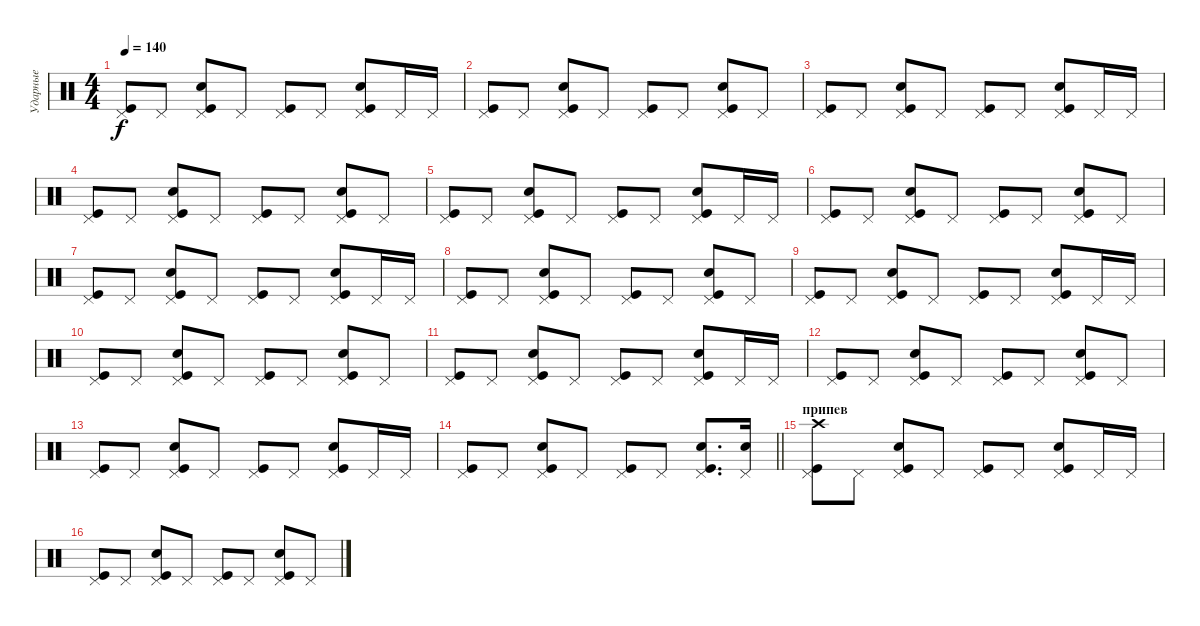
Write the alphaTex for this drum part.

\track ("Ударные" "Ударные") {instrument percussion}
\staff {score}
\articulation defaults
\ts (4 4)
\tempo 140
\clef neutral
\ks c
("Pedal Hi-Hat (hit)" "Kick (hit)").8{dy f} "Pedal Hi-Hat (hit)".8 ("Pedal Hi-Hat (hit)" "Kick (hit)" "Snare (hit) 2").8 "Pedal Hi-Hat (hit)".8 ("Pedal Hi-Hat (hit)" "Kick (hit)").8 "Pedal Hi-Hat (hit)".8 ("Pedal Hi-Hat (hit)" "Kick (hit)" "Snare (hit) 2").8 "Pedal Hi-Hat (hit)".16 "Pedal Hi-Hat (hit)".16 |
("Pedal Hi-Hat (hit)" "Kick (hit)").8 "Pedal Hi-Hat (hit)".8 ("Pedal Hi-Hat (hit)" "Kick (hit)" "Snare (hit) 2").8 "Pedal Hi-Hat (hit)".8 ("Pedal Hi-Hat (hit)" "Kick (hit)").8 "Pedal Hi-Hat (hit)".8 ("Pedal Hi-Hat (hit)" "Kick (hit)" "Snare (hit) 2").8 "Pedal Hi-Hat (hit)".8 |
("Pedal Hi-Hat (hit)" "Kick (hit)").8 "Pedal Hi-Hat (hit)".8 ("Pedal Hi-Hat (hit)" "Kick (hit)" "Snare (hit) 2").8 "Pedal Hi-Hat (hit)".8 ("Pedal Hi-Hat (hit)" "Kick (hit)").8 "Pedal Hi-Hat (hit)".8 ("Pedal Hi-Hat (hit)" "Kick (hit)" "Snare (hit) 2").8 "Pedal Hi-Hat (hit)".16 "Pedal Hi-Hat (hit)".16 |
("Pedal Hi-Hat (hit)" "Kick (hit)").8 "Pedal Hi-Hat (hit)".8 ("Pedal Hi-Hat (hit)" "Kick (hit)" "Snare (hit) 2").8 "Pedal Hi-Hat (hit)".8 ("Pedal Hi-Hat (hit)" "Kick (hit)").8 "Pedal Hi-Hat (hit)".8 ("Pedal Hi-Hat (hit)" "Kick (hit)" "Snare (hit) 2").8 "Pedal Hi-Hat (hit)".8 |
("Pedal Hi-Hat (hit)" "Kick (hit)").8 "Pedal Hi-Hat (hit)".8 ("Pedal Hi-Hat (hit)" "Kick (hit)" "Snare (hit) 2").8 "Pedal Hi-Hat (hit)".8 ("Pedal Hi-Hat (hit)" "Kick (hit)").8 "Pedal Hi-Hat (hit)".8 ("Pedal Hi-Hat (hit)" "Kick (hit)" "Snare (hit) 2").8 "Pedal Hi-Hat (hit)".16 "Pedal Hi-Hat (hit)".16 |
("Pedal Hi-Hat (hit)" "Kick (hit)").8 "Pedal Hi-Hat (hit)".8 ("Pedal Hi-Hat (hit)" "Kick (hit)" "Snare (hit) 2").8 "Pedal Hi-Hat (hit)".8 ("Pedal Hi-Hat (hit)" "Kick (hit)").8 "Pedal Hi-Hat (hit)".8 ("Pedal Hi-Hat (hit)" "Kick (hit)" "Snare (hit) 2").8 "Pedal Hi-Hat (hit)".8 |
("Pedal Hi-Hat (hit)" "Kick (hit)").8 "Pedal Hi-Hat (hit)".8 ("Pedal Hi-Hat (hit)" "Kick (hit)" "Snare (hit) 2").8 "Pedal Hi-Hat (hit)".8 ("Pedal Hi-Hat (hit)" "Kick (hit)").8 "Pedal Hi-Hat (hit)".8 ("Pedal Hi-Hat (hit)" "Kick (hit)" "Snare (hit) 2").8 "Pedal Hi-Hat (hit)".16 "Pedal Hi-Hat (hit)".16 |
("Pedal Hi-Hat (hit)" "Kick (hit)").8 "Pedal Hi-Hat (hit)".8 ("Pedal Hi-Hat (hit)" "Kick (hit)" "Snare (hit) 2").8 "Pedal Hi-Hat (hit)".8 ("Pedal Hi-Hat (hit)" "Kick (hit)").8 "Pedal Hi-Hat (hit)".8 ("Pedal Hi-Hat (hit)" "Kick (hit)" "Snare (hit) 2").8 "Pedal Hi-Hat (hit)".8 |
("Pedal Hi-Hat (hit)" "Kick (hit)").8 "Pedal Hi-Hat (hit)".8 ("Pedal Hi-Hat (hit)" "Kick (hit)" "Snare (hit) 2").8 "Pedal Hi-Hat (hit)".8 ("Pedal Hi-Hat (hit)" "Kick (hit)").8 "Pedal Hi-Hat (hit)".8 ("Pedal Hi-Hat (hit)" "Kick (hit)" "Snare (hit) 2").8 "Pedal Hi-Hat (hit)".16 "Pedal Hi-Hat (hit)".16 |
("Pedal Hi-Hat (hit)" "Kick (hit)").8 "Pedal Hi-Hat (hit)".8 ("Pedal Hi-Hat (hit)" "Kick (hit)" "Snare (hit) 2").8 "Pedal Hi-Hat (hit)".8 ("Pedal Hi-Hat (hit)" "Kick (hit)").8 "Pedal Hi-Hat (hit)".8 ("Pedal Hi-Hat (hit)" "Kick (hit)" "Snare (hit) 2").8 "Pedal Hi-Hat (hit)".8 |
("Pedal Hi-Hat (hit)" "Kick (hit)").8 "Pedal Hi-Hat (hit)".8 ("Pedal Hi-Hat (hit)" "Kick (hit)" "Snare (hit) 2").8 "Pedal Hi-Hat (hit)".8 ("Pedal Hi-Hat (hit)" "Kick (hit)").8 "Pedal Hi-Hat (hit)".8 ("Pedal Hi-Hat (hit)" "Kick (hit)" "Snare (hit) 2").8 "Pedal Hi-Hat (hit)".16 "Pedal Hi-Hat (hit)".16 |
("Pedal Hi-Hat (hit)" "Kick (hit)").8 "Pedal Hi-Hat (hit)".8 ("Pedal Hi-Hat (hit)" "Kick (hit)" "Snare (hit) 2").8 "Pedal Hi-Hat (hit)".8 ("Pedal Hi-Hat (hit)" "Kick (hit)").8 "Pedal Hi-Hat (hit)".8 ("Pedal Hi-Hat (hit)" "Kick (hit)" "Snare (hit) 2").8 "Pedal Hi-Hat (hit)".8 |
("Pedal Hi-Hat (hit)" "Kick (hit)").8 "Pedal Hi-Hat (hit)".8 ("Pedal Hi-Hat (hit)" "Kick (hit)" "Snare (hit) 2").8 "Pedal Hi-Hat (hit)".8 ("Pedal Hi-Hat (hit)" "Kick (hit)").8 "Pedal Hi-Hat (hit)".8 ("Pedal Hi-Hat (hit)" "Kick (hit)" "Snare (hit) 2").8 "Pedal Hi-Hat (hit)".16 "Pedal Hi-Hat (hit)".16 |
\barLineRight lightlight
("Pedal Hi-Hat (hit)" "Kick (hit)").8 "Pedal Hi-Hat (hit)".8 ("Pedal Hi-Hat (hit)" "Kick (hit)" "Snare (hit) 2").8 "Pedal Hi-Hat (hit)".8 ("Pedal Hi-Hat (hit)" "Kick (hit)").8 "Pedal Hi-Hat (hit)".8 ("Pedal Hi-Hat (hit)" "Kick (hit)" "Snare (hit) 2").8{d} ("Pedal Hi-Hat (hit)" "Snare (hit) 2").16 |
\section ("" "припев")
("Pedal Hi-Hat (hit)" "Kick (hit)" "Crash high (hit)").8 "Pedal Hi-Hat (hit)".8 ("Pedal Hi-Hat (hit)" "Kick (hit)" "Snare (hit) 2").8 "Pedal Hi-Hat (hit)".8 ("Pedal Hi-Hat (hit)" "Kick (hit)").8 "Pedal Hi-Hat (hit)".8 ("Pedal Hi-Hat (hit)" "Kick (hit)" "Snare (hit) 2").8 "Pedal Hi-Hat (hit)".16 "Pedal Hi-Hat (hit)".16 |
("Pedal Hi-Hat (hit)" "Kick (hit)").8 "Pedal Hi-Hat (hit)".8 ("Pedal Hi-Hat (hit)" "Kick (hit)" "Snare (hit) 2").8 "Pedal Hi-Hat (hit)".8 ("Pedal Hi-Hat (hit)" "Kick (hit)").8 "Pedal Hi-Hat (hit)".8 ("Pedal Hi-Hat (hit)" "Kick (hit)" "Snare (hit) 2").8 "Pedal Hi-Hat (hit)".8
